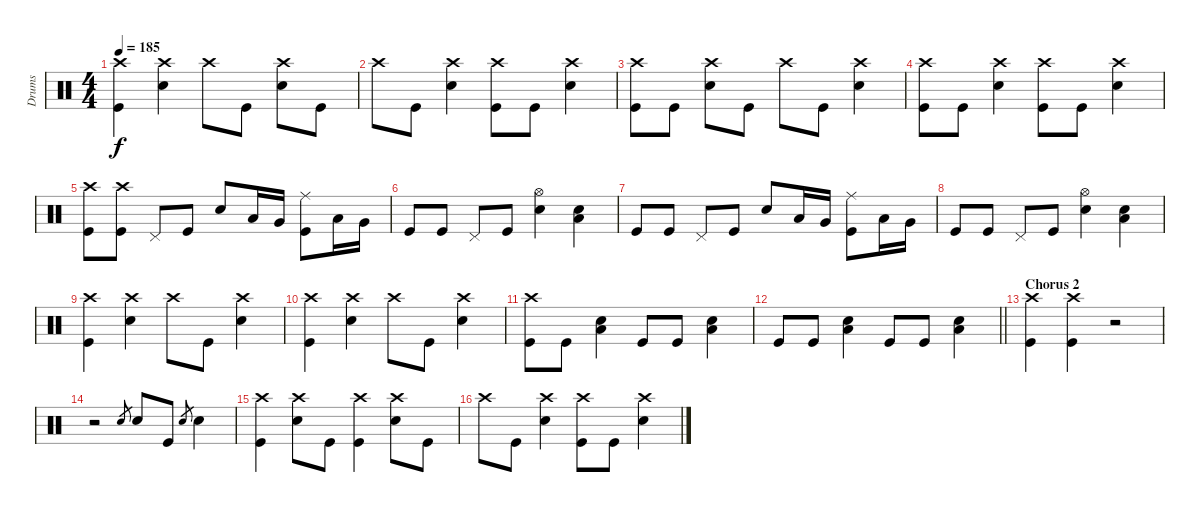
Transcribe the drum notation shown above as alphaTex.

\track ("Drums" "Drums") {instrument percussion}
\staff {score}
\articulation defaults
\ts (4 4)
\tempo 185
\clef neutral
\ks c
("Crash high (hit)" "Kick (hit)").4{dy f} ("Crash high (hit)" "Snare (hit) 2").4 "Crash high (hit)".8 "Kick (hit)".8 ("Crash high (hit)" "Snare (hit) 2").8 "Kick (hit)".8 |
"Crash high (hit)".8 "Kick (hit)".8 ("Crash high (hit)" "Snare (hit) 2").4 ("Crash high (hit)" "Kick (hit)").8 "Kick (hit)".8 ("Crash high (hit)" "Snare (hit) 2").4 |
("Crash high (hit)" "Kick (hit)").8 "Kick (hit)".8 ("Crash high (hit)" "Snare (hit) 2").8 "Kick (hit)".8 "Crash high (hit)".8 "Kick (hit)".8 ("Crash high (hit)" "Snare (hit) 2").4 |
("Crash high (hit)" "Kick (hit)").8 "Kick (hit)".8 ("Crash high (hit)" "Snare (hit) 2").4 ("Crash high (hit)" "Kick (hit)").8 "Kick (hit)".8 ("Crash high (hit)" "Snare (hit) 2").4 |
("Crash high (hit)" "Kick (hit)").8 ("Crash high (hit)" "Kick (hit)").8 "Pedal Hi-Hat (hit)".8 "Kick (hit)".8 "Snare (hit) 2".8 "Low Tom (hit)".16 "Very Low Tom (hit)".16 ("Ride (middle)" "Kick (hit)").8 "Low Tom (hit)".16 "Very Low Tom (hit)".16 |
"Kick (hit)".8 "Kick (hit)".8 "Pedal Hi-Hat (hit)".8 "Kick (hit)".8 ("Hi-Hat (open)" "Snare (hit) 2").4 ("Snare (hit) 2" "Low Floor Tom (hit)").4 |
"Kick (hit)".8 "Kick (hit)".8 "Pedal Hi-Hat (hit)".8 "Kick (hit)".8 "Snare (hit) 2".8 "Low Tom (hit)".16 "Very Low Tom (hit)".16 ("Ride (middle)" "Kick (hit)").8 "Low Tom (hit)".16 "Very Low Tom (hit)".16 |
"Kick (hit)".8 "Kick (hit)".8 "Pedal Hi-Hat (hit)".8 "Kick (hit)".8 ("Hi-Hat (open)" "Snare (hit) 2").4 ("Snare (hit) 2" "Low Floor Tom (hit)").4 |
("Crash high (hit)" "Kick (hit)").4 ("Crash high (hit)" "Snare (hit) 2").4 "Crash high (hit)".8 "Kick (hit)".8 ("Crash high (hit)" "Snare (hit) 2").4 |
("Crash high (hit)" "Kick (hit)").4 ("Crash high (hit)" "Snare (hit) 2").4 "Crash high (hit)".8 "Kick (hit)".8 ("Crash high (hit)" "Snare (hit) 2").4 |
("Crash high (hit)" "Kick (hit)").8 "Kick (hit)".8 ("Snare (hit) 2" "Low Floor Tom (hit)").4 "Kick (hit)".8 "Kick (hit)".8 ("Snare (hit) 2" "Low Floor Tom (hit)").4 |
\barLineRight lightlight "Kick (hit)".8 "Kick (hit)".8
("Snare (hit) 2" "Low Floor Tom (hit)").4 "Kick (hit)".8 "Kick (hit)".8 ("Snare (hit) 2" "Low Floor Tom (hit)").4 |
\section ("" "Chorus 2")
("Crash high (hit)" "Kick (hit)").4 ("Crash high (hit)" "Kick (hit)").4 r.2 |
r.2 "Snare (hit) 2".8{gr} "Snare (hit) 2".8 "Kick (hit)".8 "Snare (hit) 2".8{gr} "Snare (hit) 2".4 |
("Crash high (hit)" "Kick (hit)").4 ("Crash high (hit)" "Snare (hit) 2").8 "Kick (hit)".8 ("Crash high (hit)" "Kick (hit)").4 ("Crash high (hit)" "Snare (hit) 2").8 "Kick (hit)".8 |
"Crash high (hit)".8 "Kick (hit)".8 ("Crash high (hit)" "Snare (hit) 2").4 ("Crash high (hit)" "Kick (hit)").8 "Kick (hit)".8 ("Crash high (hit)" "Snare (hit) 2").4
